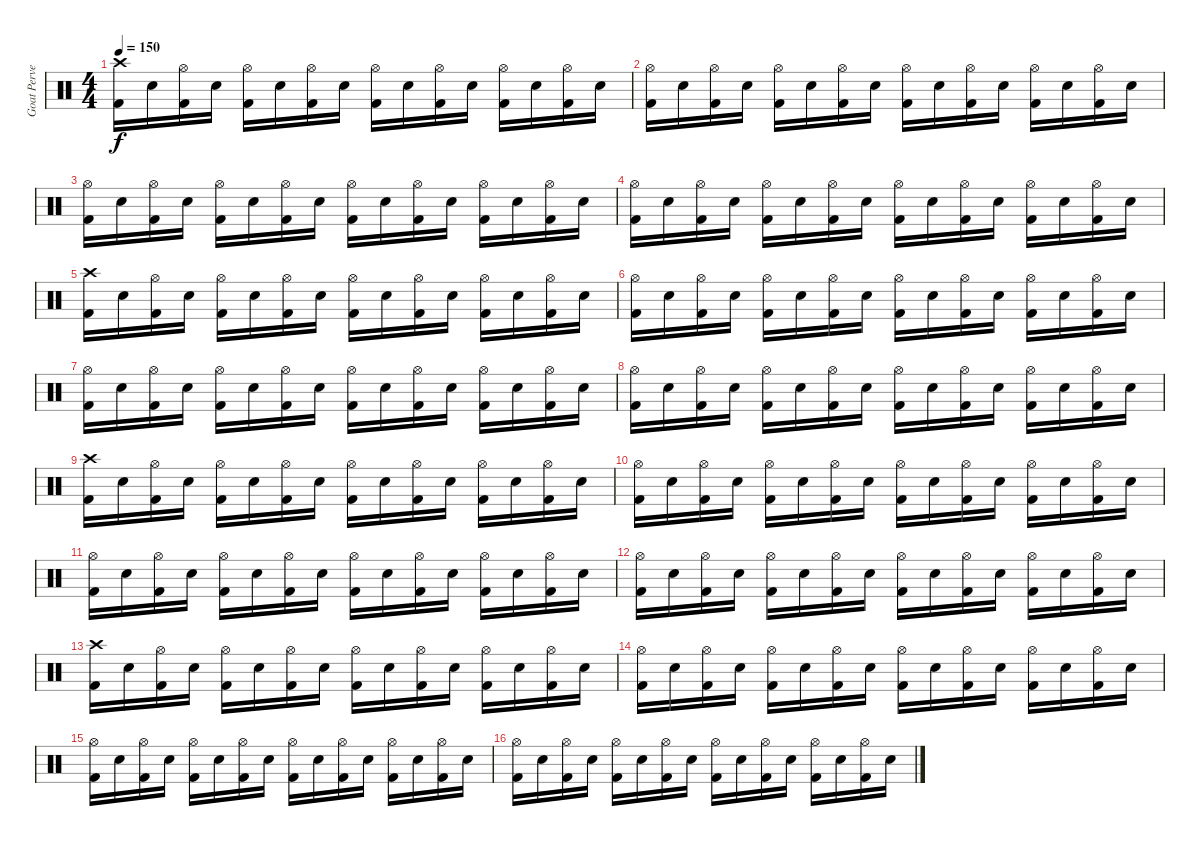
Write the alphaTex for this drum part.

\track ("Goat Pervertor" "Goat Perve") {instrument percussion}
\staff {score}
\articulation defaults
\ts (4 4)
\tempo 150
\clef neutral
\ks c
("Kick (hit) 2" "Crash high (hit)").16{dy f} "Snare (hit) 2".16 ("Kick (hit) 2" "Hi-Hat (open)").16 "Snare (hit) 2".16 ("Kick (hit) 2" "Hi-Hat (open)").16 "Snare (hit) 2".16 ("Kick (hit) 2" "Hi-Hat (open)").16 "Snare (hit) 2".16 ("Kick (hit) 2" "Hi-Hat (open)").16 "Snare (hit) 2".16 ("Kick (hit) 2" "Hi-Hat (open)").16 "Snare (hit) 2".16 ("Kick (hit) 2" "Hi-Hat (open)").16 "Snare (hit) 2".16 ("Kick (hit) 2" "Hi-Hat (open)").16 "Snare (hit) 2".16 |
("Kick (hit) 2" "Hi-Hat (open)").16 "Snare (hit) 2".16 ("Kick (hit) 2" "Hi-Hat (open)").16 "Snare (hit) 2".16 ("Kick (hit) 2" "Hi-Hat (open)").16 "Snare (hit) 2".16 ("Kick (hit) 2" "Hi-Hat (open)").16 "Snare (hit) 2".16 ("Kick (hit) 2" "Hi-Hat (open)").16 "Snare (hit) 2".16 ("Kick (hit) 2" "Hi-Hat (open)").16 "Snare (hit) 2".16 ("Kick (hit) 2" "Hi-Hat (open)").16 "Snare (hit) 2".16 ("Kick (hit) 2" "Hi-Hat (open)").16 "Snare (hit) 2".16 |
("Kick (hit) 2" "Hi-Hat (open)").16 "Snare (hit) 2".16 ("Kick (hit) 2" "Hi-Hat (open)").16 "Snare (hit) 2".16 ("Kick (hit) 2" "Hi-Hat (open)").16 "Snare (hit) 2".16 ("Kick (hit) 2" "Hi-Hat (open)").16 "Snare (hit) 2".16 ("Kick (hit) 2" "Hi-Hat (open)").16 "Snare (hit) 2".16 ("Kick (hit) 2" "Hi-Hat (open)").16 "Snare (hit) 2".16 ("Kick (hit) 2" "Hi-Hat (open)").16 "Snare (hit) 2".16 ("Kick (hit) 2" "Hi-Hat (open)").16 "Snare (hit) 2".16 |
("Kick (hit) 2" "Hi-Hat (open)").16 "Snare (hit) 2".16 ("Kick (hit) 2" "Hi-Hat (open)").16 "Snare (hit) 2".16 ("Kick (hit) 2" "Hi-Hat (open)").16 "Snare (hit) 2".16 ("Kick (hit) 2" "Hi-Hat (open)").16 "Snare (hit) 2".16 ("Kick (hit) 2" "Hi-Hat (open)").16 "Snare (hit) 2".16 ("Kick (hit) 2" "Hi-Hat (open)").16 "Snare (hit) 2".16 ("Kick (hit) 2" "Hi-Hat (open)").16 "Snare (hit) 2".16 ("Kick (hit) 2" "Hi-Hat (open)").16 "Snare (hit) 2".16 |
("Kick (hit) 2" "Crash high (hit)").16 "Snare (hit) 2".16 ("Kick (hit) 2" "Hi-Hat (open)").16 "Snare (hit) 2".16 ("Kick (hit) 2" "Hi-Hat (open)").16 "Snare (hit) 2".16 ("Kick (hit) 2" "Hi-Hat (open)").16 "Snare (hit) 2".16 ("Kick (hit) 2" "Hi-Hat (open)").16 "Snare (hit) 2".16 ("Kick (hit) 2" "Hi-Hat (open)").16 "Snare (hit) 2".16 ("Kick (hit) 2" "Hi-Hat (open)").16 "Snare (hit) 2".16 ("Kick (hit) 2" "Hi-Hat (open)").16 "Snare (hit) 2".16 |
("Kick (hit) 2" "Hi-Hat (open)").16 "Snare (hit) 2".16 ("Kick (hit) 2" "Hi-Hat (open)").16 "Snare (hit) 2".16 ("Kick (hit) 2" "Hi-Hat (open)").16 "Snare (hit) 2".16 ("Kick (hit) 2" "Hi-Hat (open)").16 "Snare (hit) 2".16 ("Kick (hit) 2" "Hi-Hat (open)").16 "Snare (hit) 2".16 ("Kick (hit) 2" "Hi-Hat (open)").16 "Snare (hit) 2".16 ("Kick (hit) 2" "Hi-Hat (open)").16 "Snare (hit) 2".16 ("Kick (hit) 2" "Hi-Hat (open)").16 "Snare (hit) 2".16 |
("Kick (hit) 2" "Hi-Hat (open)").16 "Snare (hit) 2".16 ("Kick (hit) 2" "Hi-Hat (open)").16 "Snare (hit) 2".16 ("Kick (hit) 2" "Hi-Hat (open)").16 "Snare (hit) 2".16 ("Kick (hit) 2" "Hi-Hat (open)").16 "Snare (hit) 2".16 ("Kick (hit) 2" "Hi-Hat (open)").16 "Snare (hit) 2".16 ("Kick (hit) 2" "Hi-Hat (open)").16 "Snare (hit) 2".16 ("Kick (hit) 2" "Hi-Hat (open)").16 "Snare (hit) 2".16 ("Kick (hit) 2" "Hi-Hat (open)").16 "Snare (hit) 2".16 |
("Kick (hit) 2" "Hi-Hat (open)").16 "Snare (hit) 2".16 ("Kick (hit) 2" "Hi-Hat (open)").16 "Snare (hit) 2".16 ("Kick (hit) 2" "Hi-Hat (open)").16 "Snare (hit) 2".16 ("Kick (hit) 2" "Hi-Hat (open)").16 "Snare (hit) 2".16 ("Kick (hit) 2" "Hi-Hat (open)").16 "Snare (hit) 2".16 ("Kick (hit) 2" "Hi-Hat (open)").16 "Snare (hit) 2".16 ("Kick (hit) 2" "Hi-Hat (open)").16 "Snare (hit) 2".16 ("Kick (hit) 2" "Hi-Hat (open)").16 "Snare (hit) 2".16 |
("Kick (hit) 2" "Crash high (hit)").16 "Snare (hit) 2".16 ("Kick (hit) 2" "Hi-Hat (open)").16 "Snare (hit) 2".16 ("Kick (hit) 2" "Hi-Hat (open)").16 "Snare (hit) 2".16 ("Kick (hit) 2" "Hi-Hat (open)").16 "Snare (hit) 2".16 ("Kick (hit) 2" "Hi-Hat (open)").16 "Snare (hit) 2".16 ("Kick (hit) 2" "Hi-Hat (open)").16 "Snare (hit) 2".16 ("Kick (hit) 2" "Hi-Hat (open)").16 "Snare (hit) 2".16 ("Kick (hit) 2" "Hi-Hat (open)").16 "Snare (hit) 2".16 |
("Kick (hit) 2" "Hi-Hat (open)").16 "Snare (hit) 2".16 ("Kick (hit) 2" "Hi-Hat (open)").16 "Snare (hit) 2".16 ("Kick (hit) 2" "Hi-Hat (open)").16 "Snare (hit) 2".16 ("Kick (hit) 2" "Hi-Hat (open)").16 "Snare (hit) 2".16 ("Kick (hit) 2" "Hi-Hat (open)").16 "Snare (hit) 2".16 ("Kick (hit) 2" "Hi-Hat (open)").16 "Snare (hit) 2".16 ("Kick (hit) 2" "Hi-Hat (open)").16 "Snare (hit) 2".16 ("Kick (hit) 2" "Hi-Hat (open)").16 "Snare (hit) 2".16 |
("Kick (hit) 2" "Hi-Hat (open)").16 "Snare (hit) 2".16 ("Kick (hit) 2" "Hi-Hat (open)").16 "Snare (hit) 2".16 ("Kick (hit) 2" "Hi-Hat (open)").16 "Snare (hit) 2".16 ("Kick (hit) 2" "Hi-Hat (open)").16 "Snare (hit) 2".16 ("Kick (hit) 2" "Hi-Hat (open)").16 "Snare (hit) 2".16 ("Kick (hit) 2" "Hi-Hat (open)").16 "Snare (hit) 2".16 ("Kick (hit) 2" "Hi-Hat (open)").16 "Snare (hit) 2".16 ("Kick (hit) 2" "Hi-Hat (open)").16 "Snare (hit) 2".16 |
("Kick (hit) 2" "Hi-Hat (open)").16 "Snare (hit) 2".16 ("Kick (hit) 2" "Hi-Hat (open)").16 "Snare (hit) 2".16 ("Kick (hit) 2" "Hi-Hat (open)").16 "Snare (hit) 2".16 ("Kick (hit) 2" "Hi-Hat (open)").16 "Snare (hit) 2".16 ("Kick (hit) 2" "Hi-Hat (open)").16 "Snare (hit) 2".16 ("Kick (hit) 2" "Hi-Hat (open)").16 "Snare (hit) 2".16 ("Kick (hit) 2" "Hi-Hat (open)").16 "Snare (hit) 2".16 ("Kick (hit) 2" "Hi-Hat (open)").16 "Snare (hit) 2".16 |
("Kick (hit) 2" "Crash high (hit)").16 "Snare (hit) 2".16 ("Kick (hit) 2" "Hi-Hat (open)").16 "Snare (hit) 2".16 ("Kick (hit) 2" "Hi-Hat (open)").16 "Snare (hit) 2".16 ("Kick (hit) 2" "Hi-Hat (open)").16 "Snare (hit) 2".16 ("Kick (hit) 2" "Hi-Hat (open)").16 "Snare (hit) 2".16 ("Kick (hit) 2" "Hi-Hat (open)").16 "Snare (hit) 2".16 ("Kick (hit) 2" "Hi-Hat (open)").16 "Snare (hit) 2".16 ("Kick (hit) 2" "Hi-Hat (open)").16 "Snare (hit) 2".16 |
("Kick (hit) 2" "Hi-Hat (open)").16 "Snare (hit) 2".16 ("Kick (hit) 2" "Hi-Hat (open)").16 "Snare (hit) 2".16 ("Kick (hit) 2" "Hi-Hat (open)").16 "Snare (hit) 2".16 ("Kick (hit) 2" "Hi-Hat (open)").16 "Snare (hit) 2".16 ("Kick (hit) 2" "Hi-Hat (open)").16 "Snare (hit) 2".16 ("Kick (hit) 2" "Hi-Hat (open)").16 "Snare (hit) 2".16 ("Kick (hit) 2" "Hi-Hat (open)").16 "Snare (hit) 2".16 ("Kick (hit) 2" "Hi-Hat (open)").16 "Snare (hit) 2".16 |
("Kick (hit) 2" "Hi-Hat (open)").16 "Snare (hit) 2".16 ("Kick (hit) 2" "Hi-Hat (open)").16 "Snare (hit) 2".16 ("Kick (hit) 2" "Hi-Hat (open)").16 "Snare (hit) 2".16 ("Kick (hit) 2" "Hi-Hat (open)").16 "Snare (hit) 2".16 ("Kick (hit) 2" "Hi-Hat (open)").16 "Snare (hit) 2".16 ("Kick (hit) 2" "Hi-Hat (open)").16 "Snare (hit) 2".16 ("Kick (hit) 2" "Hi-Hat (open)").16 "Snare (hit) 2".16 ("Kick (hit) 2" "Hi-Hat (open)").16 "Snare (hit) 2".16 |
("Kick (hit) 2" "Hi-Hat (open)").16 "Snare (hit) 2".16 ("Kick (hit) 2" "Hi-Hat (open)").16 "Snare (hit) 2".16 ("Kick (hit) 2" "Hi-Hat (open)").16 "Snare (hit) 2".16 ("Kick (hit) 2" "Hi-Hat (open)").16 "Snare (hit) 2".16 ("Kick (hit) 2" "Hi-Hat (open)").16 "Snare (hit) 2".16 ("Kick (hit) 2" "Hi-Hat (open)").16 "Snare (hit) 2".16 ("Kick (hit) 2" "Hi-Hat (open)").16 "Snare (hit) 2".16 ("Kick (hit) 2" "Hi-Hat (open)").16 "Snare (hit) 2".16
